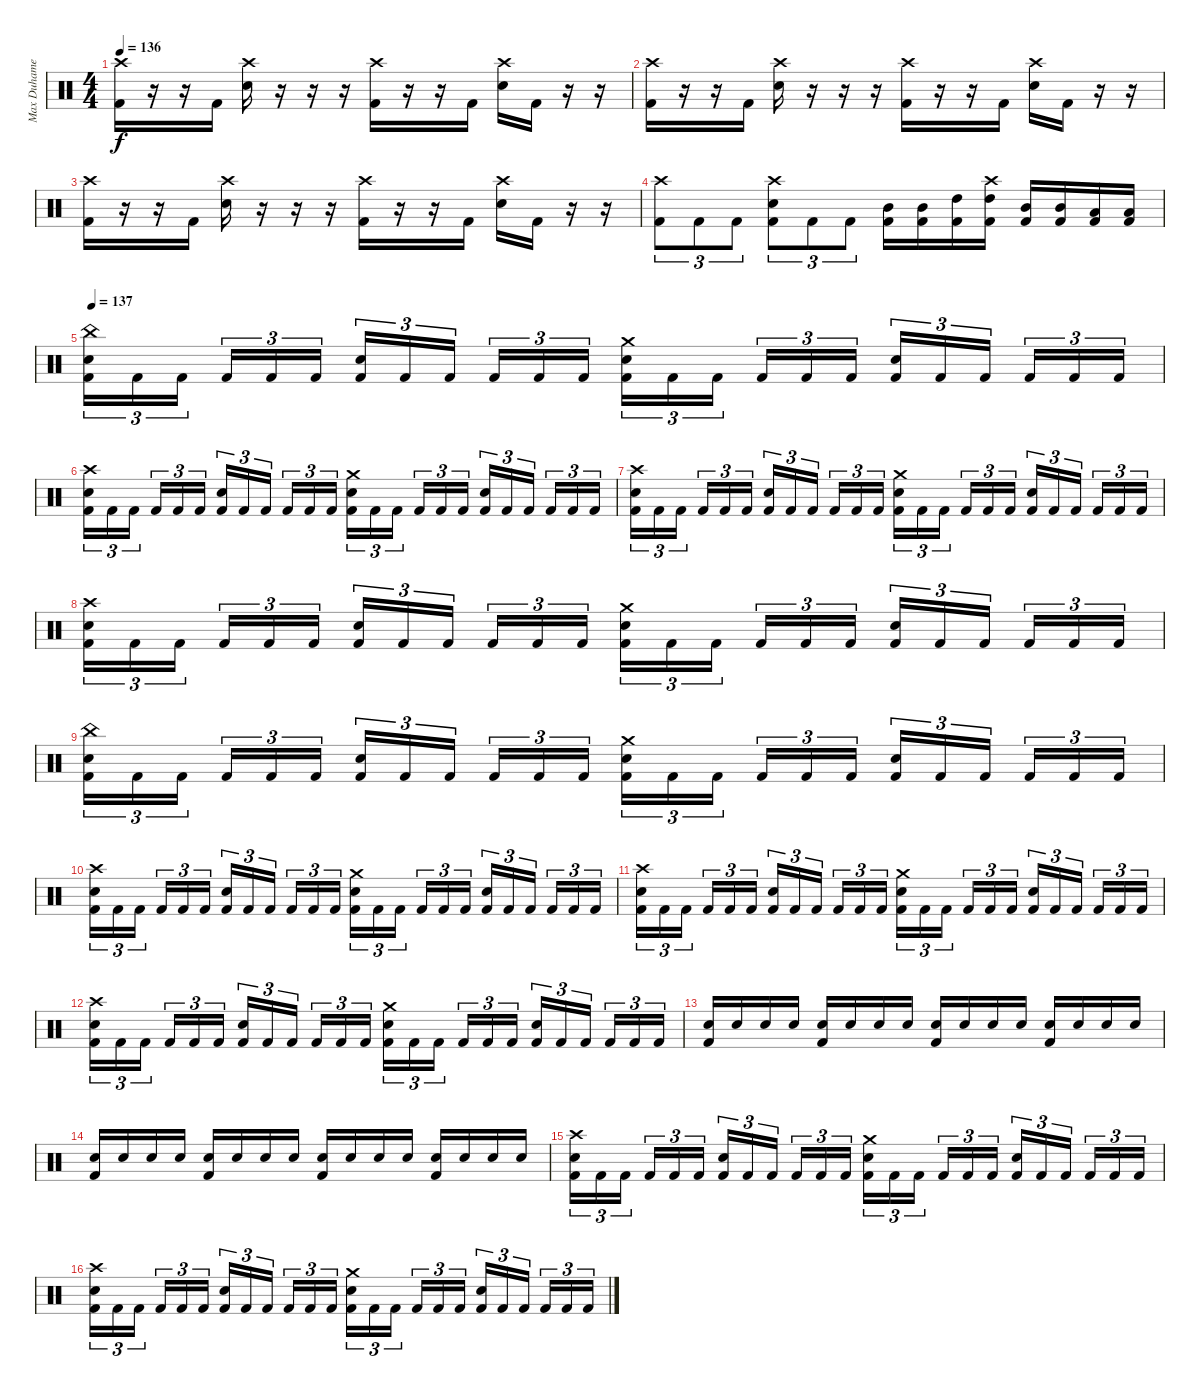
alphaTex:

\track ("Max Duhamel (Drums)" "Max Duhame") {instrument percussion}
\staff {score}
\articulation defaults
\ts (4 4)
\tempo 136
\clef neutral
\ks c
("Crash high (hit)" "Kick (hit) 2").16{dy f} r.16 r.16 "Kick (hit) 2".16 ("Crash high (hit)" "Electric Snare (hit)").16 r.16 r.16 r.16 ("Crash high (hit)" "Kick (hit) 2").16 r.16 r.16 "Kick (hit) 2".16 ("Crash high (hit)" "Electric Snare (hit)").16 "Kick (hit) 2".16 r.16 r.16 |
("Crash high (hit)" "Kick (hit) 2").16 r.16 r.16 "Kick (hit) 2".16 ("Crash high (hit)" "Electric Snare (hit)").16 r.16 r.16 r.16 ("Crash high (hit)" "Kick (hit) 2").16 r.16 r.16 "Kick (hit) 2".16 ("Crash high (hit)" "Electric Snare (hit)").16 "Kick (hit) 2".16 r.16 r.16 |
("Crash high (hit)" "Kick (hit) 2").16 r.16 r.16 "Kick (hit) 2".16 ("Crash high (hit)" "Electric Snare (hit)").16 r.16 r.16 r.16 ("Crash high (hit)" "Kick (hit) 2").16 r.16 r.16 "Kick (hit) 2".16 ("Crash high (hit)" "Electric Snare (hit)").16 "Kick (hit) 2".16 r.16 r.16 |
("Crash high (hit)" "Kick (hit) 2").8{tu (3 2)} "Kick (hit) 2".8{tu (3 2)} "Kick (hit) 2".8{tu (3 2)} ("Crash high (hit)" "Electric Snare (hit)" "Kick (hit) 2").8{tu (3 2)} "Kick (hit) 2".8{tu (3 2)} "Kick (hit) 2".8{tu (3 2)} ("Mid Tom (hit)" "Kick (hit) 2").16 ("Mid Tom (hit)" "Kick (hit) 2").16 ("High Tom (hit)" "Kick (hit) 2").16 ("Crash high (hit)" "High Tom (hit)" "Kick (hit) 2").16 ("Mid Tom (hit)" "Kick (hit) 2").16 ("Mid Tom (hit)" "Kick (hit) 2").16 ("Low Tom (hit)" "Kick (hit) 2").16 ("Low Tom (hit)" "Kick (hit) 2").16 |
\tempo 137
("China (hit)" "Electric Snare (hit)" "Kick (hit) 2").16{tu (3 2)} "Kick (hit) 2".16{tu (3 2)} "Kick (hit) 2".16{tu (3 2) beam splitsecondary} "Kick (hit) 2".16{tu (3 2)} "Kick (hit) 2".16{tu (3 2)} "Kick (hit) 2".16{tu (3 2)} ("Electric Snare (hit)" "Kick (hit) 2").16{tu (3 2)} "Kick (hit) 2".16{tu (3 2)} "Kick (hit) 2".16{tu (3 2) beam splitsecondary} "Kick (hit) 2".16{tu (3 2)} "Kick (hit) 2".16{tu (3 2)} "Kick (hit) 2".16{tu (3 2)} ("Crash medium (hit)" "Electric Snare (hit)" "Kick (hit) 2").16{tu (3 2)} "Kick (hit) 2".16{tu (3 2)} "Kick (hit) 2".16{tu (3 2) beam splitsecondary} "Kick (hit) 2".16{tu (3 2)} "Kick (hit) 2".16{tu (3 2)} "Kick (hit) 2".16{tu (3 2)} ("Electric Snare (hit)" "Kick (hit) 2").16{tu (3 2)} "Kick (hit) 2".16{tu (3 2)} "Kick (hit) 2".16{tu (3 2) beam splitsecondary} "Kick (hit) 2".16{tu (3 2)} "Kick (hit) 2".16{tu (3 2)} "Kick (hit) 2".16{tu (3 2)} |
("Crash high (hit)" "Electric Snare (hit)" "Kick (hit) 2").16{tu (3 2)} "Kick (hit) 2".16{tu (3 2)} "Kick (hit) 2".16{tu (3 2) beam splitsecondary} "Kick (hit) 2".16{tu (3 2)} "Kick (hit) 2".16{tu (3 2)} "Kick (hit) 2".16{tu (3 2)} ("Electric Snare (hit)" "Kick (hit) 2").16{tu (3 2)} "Kick (hit) 2".16{tu (3 2)} "Kick (hit) 2".16{tu (3 2) beam splitsecondary} "Kick (hit) 2".16{tu (3 2)} "Kick (hit) 2".16{tu (3 2)} "Kick (hit) 2".16{tu (3 2)} ("Crash medium (hit)" "Electric Snare (hit)" "Kick (hit) 2").16{tu (3 2)} "Kick (hit) 2".16{tu (3 2)} "Kick (hit) 2".16{tu (3 2) beam splitsecondary} "Kick (hit) 2".16{tu (3 2)} "Kick (hit) 2".16{tu (3 2)} "Kick (hit) 2".16{tu (3 2)} ("Electric Snare (hit)" "Kick (hit) 2").16{tu (3 2)} "Kick (hit) 2".16{tu (3 2)} "Kick (hit) 2".16{tu (3 2) beam splitsecondary} "Kick (hit) 2".16{tu (3 2)} "Kick (hit) 2".16{tu (3 2)} "Kick (hit) 2".16{tu (3 2)} |
("Crash high (hit)" "Electric Snare (hit)" "Kick (hit) 2").16{tu (3 2)} "Kick (hit) 2".16{tu (3 2)} "Kick (hit) 2".16{tu (3 2) beam splitsecondary} "Kick (hit) 2".16{tu (3 2)} "Kick (hit) 2".16{tu (3 2)} "Kick (hit) 2".16{tu (3 2)} ("Electric Snare (hit)" "Kick (hit) 2").16{tu (3 2)} "Kick (hit) 2".16{tu (3 2)} "Kick (hit) 2".16{tu (3 2) beam splitsecondary} "Kick (hit) 2".16{tu (3 2)} "Kick (hit) 2".16{tu (3 2)} "Kick (hit) 2".16{tu (3 2)} ("Crash medium (hit)" "Electric Snare (hit)" "Kick (hit) 2").16{tu (3 2)} "Kick (hit) 2".16{tu (3 2)} "Kick (hit) 2".16{tu (3 2) beam splitsecondary} "Kick (hit) 2".16{tu (3 2)} "Kick (hit) 2".16{tu (3 2)} "Kick (hit) 2".16{tu (3 2)} ("Electric Snare (hit)" "Kick (hit) 2").16{tu (3 2)} "Kick (hit) 2".16{tu (3 2)} "Kick (hit) 2".16{tu (3 2) beam splitsecondary} "Kick (hit) 2".16{tu (3 2)} "Kick (hit) 2".16{tu (3 2)} "Kick (hit) 2".16{tu (3 2)} |
("Crash high (hit)" "Electric Snare (hit)" "Kick (hit) 2").16{tu (3 2)} "Kick (hit) 2".16{tu (3 2)} "Kick (hit) 2".16{tu (3 2) beam splitsecondary} "Kick (hit) 2".16{tu (3 2)} "Kick (hit) 2".16{tu (3 2)} "Kick (hit) 2".16{tu (3 2)} ("Electric Snare (hit)" "Kick (hit) 2").16{tu (3 2)} "Kick (hit) 2".16{tu (3 2)} "Kick (hit) 2".16{tu (3 2) beam splitsecondary} "Kick (hit) 2".16{tu (3 2)} "Kick (hit) 2".16{tu (3 2)} "Kick (hit) 2".16{tu (3 2)} ("Crash medium (hit)" "Electric Snare (hit)" "Kick (hit) 2").16{tu (3 2)} "Kick (hit) 2".16{tu (3 2)} "Kick (hit) 2".16{tu (3 2) beam splitsecondary} "Kick (hit) 2".16{tu (3 2)} "Kick (hit) 2".16{tu (3 2)} "Kick (hit) 2".16{tu (3 2)} ("Electric Snare (hit)" "Kick (hit) 2").16{tu (3 2)} "Kick (hit) 2".16{tu (3 2)} "Kick (hit) 2".16{tu (3 2) beam splitsecondary} "Kick (hit) 2".16{tu (3 2)} "Kick (hit) 2".16{tu (3 2)} "Kick (hit) 2".16{tu (3 2)} |
("China (hit)" "Electric Snare (hit)" "Kick (hit) 2").16{tu (3 2)} "Kick (hit) 2".16{tu (3 2)} "Kick (hit) 2".16{tu (3 2) beam splitsecondary} "Kick (hit) 2".16{tu (3 2)} "Kick (hit) 2".16{tu (3 2)} "Kick (hit) 2".16{tu (3 2)} ("Electric Snare (hit)" "Kick (hit) 2").16{tu (3 2)} "Kick (hit) 2".16{tu (3 2)} "Kick (hit) 2".16{tu (3 2) beam splitsecondary} "Kick (hit) 2".16{tu (3 2)} "Kick (hit) 2".16{tu (3 2)} "Kick (hit) 2".16{tu (3 2)} ("Crash medium (hit)" "Electric Snare (hit)" "Kick (hit) 2").16{tu (3 2)} "Kick (hit) 2".16{tu (3 2)} "Kick (hit) 2".16{tu (3 2) beam splitsecondary} "Kick (hit) 2".16{tu (3 2)} "Kick (hit) 2".16{tu (3 2)} "Kick (hit) 2".16{tu (3 2)} ("Electric Snare (hit)" "Kick (hit) 2").16{tu (3 2)} "Kick (hit) 2".16{tu (3 2)} "Kick (hit) 2".16{tu (3 2) beam splitsecondary} "Kick (hit) 2".16{tu (3 2)} "Kick (hit) 2".16{tu (3 2)} "Kick (hit) 2".16{tu (3 2)} |
("Crash high (hit)" "Electric Snare (hit)" "Kick (hit) 2").16{tu (3 2)} "Kick (hit) 2".16{tu (3 2)} "Kick (hit) 2".16{tu (3 2) beam splitsecondary} "Kick (hit) 2".16{tu (3 2)} "Kick (hit) 2".16{tu (3 2)} "Kick (hit) 2".16{tu (3 2)} ("Electric Snare (hit)" "Kick (hit) 2").16{tu (3 2)} "Kick (hit) 2".16{tu (3 2)} "Kick (hit) 2".16{tu (3 2) beam splitsecondary} "Kick (hit) 2".16{tu (3 2)} "Kick (hit) 2".16{tu (3 2)} "Kick (hit) 2".16{tu (3 2)} ("Crash medium (hit)" "Electric Snare (hit)" "Kick (hit) 2").16{tu (3 2)} "Kick (hit) 2".16{tu (3 2)} "Kick (hit) 2".16{tu (3 2) beam splitsecondary} "Kick (hit) 2".16{tu (3 2)} "Kick (hit) 2".16{tu (3 2)} "Kick (hit) 2".16{tu (3 2)} ("Electric Snare (hit)" "Kick (hit) 2").16{tu (3 2)} "Kick (hit) 2".16{tu (3 2)} "Kick (hit) 2".16{tu (3 2) beam splitsecondary} "Kick (hit) 2".16{tu (3 2)} "Kick (hit) 2".16{tu (3 2)} "Kick (hit) 2".16{tu (3 2)} |
("Crash high (hit)" "Electric Snare (hit)" "Kick (hit) 2").16{tu (3 2)} "Kick (hit) 2".16{tu (3 2)} "Kick (hit) 2".16{tu (3 2) beam splitsecondary} "Kick (hit) 2".16{tu (3 2)} "Kick (hit) 2".16{tu (3 2)} "Kick (hit) 2".16{tu (3 2)} ("Electric Snare (hit)" "Kick (hit) 2").16{tu (3 2)} "Kick (hit) 2".16{tu (3 2)} "Kick (hit) 2".16{tu (3 2) beam splitsecondary} "Kick (hit) 2".16{tu (3 2)} "Kick (hit) 2".16{tu (3 2)} "Kick (hit) 2".16{tu (3 2)} ("Crash medium (hit)" "Electric Snare (hit)" "Kick (hit) 2").16{tu (3 2)} "Kick (hit) 2".16{tu (3 2)} "Kick (hit) 2".16{tu (3 2) beam splitsecondary} "Kick (hit) 2".16{tu (3 2)} "Kick (hit) 2".16{tu (3 2)} "Kick (hit) 2".16{tu (3 2)} ("Electric Snare (hit)" "Kick (hit) 2").16{tu (3 2)} "Kick (hit) 2".16{tu (3 2)} "Kick (hit) 2".16{tu (3 2) beam splitsecondary} "Kick (hit) 2".16{tu (3 2)} "Kick (hit) 2".16{tu (3 2)} "Kick (hit) 2".16{tu (3 2)} |
("Crash high (hit)" "Electric Snare (hit)" "Kick (hit) 2").16{tu (3 2)} "Kick (hit) 2".16{tu (3 2)} "Kick (hit) 2".16{tu (3 2) beam splitsecondary} "Kick (hit) 2".16{tu (3 2)} "Kick (hit) 2".16{tu (3 2)} "Kick (hit) 2".16{tu (3 2)} ("Electric Snare (hit)" "Kick (hit) 2").16{tu (3 2)} "Kick (hit) 2".16{tu (3 2)} "Kick (hit) 2".16{tu (3 2) beam splitsecondary} "Kick (hit) 2".16{tu (3 2)} "Kick (hit) 2".16{tu (3 2)} "Kick (hit) 2".16{tu (3 2)} ("Crash medium (hit)" "Electric Snare (hit)" "Kick (hit) 2").16{tu (3 2)} "Kick (hit) 2".16{tu (3 2)} "Kick (hit) 2".16{tu (3 2) beam splitsecondary} "Kick (hit) 2".16{tu (3 2)} "Kick (hit) 2".16{tu (3 2)} "Kick (hit) 2".16{tu (3 2)} ("Electric Snare (hit)" "Kick (hit) 2").16{tu (3 2)} "Kick (hit) 2".16{tu (3 2)} "Kick (hit) 2".16{tu (3 2) beam splitsecondary} "Kick (hit) 2".16{tu (3 2)} "Kick (hit) 2".16{tu (3 2)} "Kick (hit) 2".16{tu (3 2)} |
("Electric Snare (hit)" "Kick (hit) 2").16 "Electric Snare (hit)".16 "Electric Snare (hit)".16 "Electric Snare (hit)".16 ("Electric Snare (hit)" "Kick (hit) 2").16 "Electric Snare (hit)".16 "Electric Snare (hit)".16 "Electric Snare (hit)".16 ("Electric Snare (hit)" "Kick (hit) 2").16 "Electric Snare (hit)".16 "Electric Snare (hit)".16 "Electric Snare (hit)".16 ("Electric Snare (hit)" "Kick (hit) 2").16 "Electric Snare (hit)".16 "Electric Snare (hit)".16 "Electric Snare (hit)".16 |
("Electric Snare (hit)" "Kick (hit) 2").16 "Electric Snare (hit)".16 "Electric Snare (hit)".16 "Electric Snare (hit)".16 ("Electric Snare (hit)" "Kick (hit) 2").16 "Electric Snare (hit)".16 "Electric Snare (hit)".16 "Electric Snare (hit)".16 ("Electric Snare (hit)" "Kick (hit) 2").16 "Electric Snare (hit)".16 "Electric Snare (hit)".16 "Electric Snare (hit)".16 ("Electric Snare (hit)" "Kick (hit) 2").16 "Electric Snare (hit)".16 "Electric Snare (hit)".16 "Electric Snare (hit)".16 |
("Crash high (hit)" "Electric Snare (hit)" "Kick (hit) 2").16{tu (3 2)} "Kick (hit) 2".16{tu (3 2)} "Kick (hit) 2".16{tu (3 2) beam splitsecondary} "Kick (hit) 2".16{tu (3 2)} "Kick (hit) 2".16{tu (3 2)} "Kick (hit) 2".16{tu (3 2)} ("Electric Snare (hit)" "Kick (hit) 2").16{tu (3 2)} "Kick (hit) 2".16{tu (3 2)} "Kick (hit) 2".16{tu (3 2) beam splitsecondary} "Kick (hit) 2".16{tu (3 2)} "Kick (hit) 2".16{tu (3 2)} "Kick (hit) 2".16{tu (3 2)} ("Crash medium (hit)" "Electric Snare (hit)" "Kick (hit) 2").16{tu (3 2)} "Kick (hit) 2".16{tu (3 2)} "Kick (hit) 2".16{tu (3 2) beam splitsecondary} "Kick (hit) 2".16{tu (3 2)} "Kick (hit) 2".16{tu (3 2)} "Kick (hit) 2".16{tu (3 2)} ("Electric Snare (hit)" "Kick (hit) 2").16{tu (3 2)} "Kick (hit) 2".16{tu (3 2)} "Kick (hit) 2".16{tu (3 2) beam splitsecondary} "Kick (hit) 2".16{tu (3 2)} "Kick (hit) 2".16{tu (3 2)} "Kick (hit) 2".16{tu (3 2)} |
("Crash high (hit)" "Electric Snare (hit)" "Kick (hit) 2").16{tu (3 2)} "Kick (hit) 2".16{tu (3 2)} "Kick (hit) 2".16{tu (3 2) beam splitsecondary} "Kick (hit) 2".16{tu (3 2)} "Kick (hit) 2".16{tu (3 2)} "Kick (hit) 2".16{tu (3 2)} ("Electric Snare (hit)" "Kick (hit) 2").16{tu (3 2)} "Kick (hit) 2".16{tu (3 2)} "Kick (hit) 2".16{tu (3 2) beam splitsecondary} "Kick (hit) 2".16{tu (3 2)} "Kick (hit) 2".16{tu (3 2)} "Kick (hit) 2".16{tu (3 2)} ("Crash medium (hit)" "Electric Snare (hit)" "Kick (hit) 2").16{tu (3 2)} "Kick (hit) 2".16{tu (3 2)} "Kick (hit) 2".16{tu (3 2) beam splitsecondary} "Kick (hit) 2".16{tu (3 2)} "Kick (hit) 2".16{tu (3 2)} "Kick (hit) 2".16{tu (3 2)} ("Electric Snare (hit)" "Kick (hit) 2").16{tu (3 2)} "Kick (hit) 2".16{tu (3 2)} "Kick (hit) 2".16{tu (3 2) beam splitsecondary} "Kick (hit) 2".16{tu (3 2)} "Kick (hit) 2".16{tu (3 2)} "Kick (hit) 2".16{tu (3 2)}
